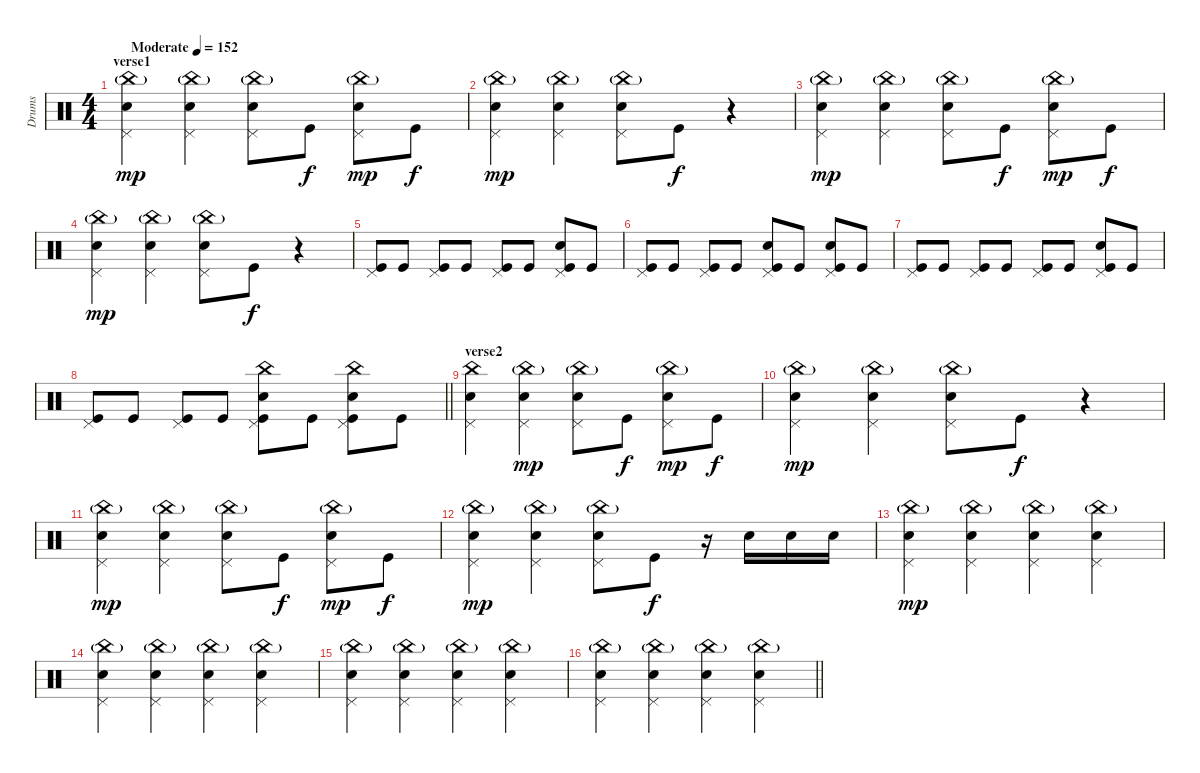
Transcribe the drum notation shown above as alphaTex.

\track ("Drums" "Drums") {instrument percussion}
\staff {score}
\articulation defaults
\ts (4 4)
\section ("" "verse1")
\tempo (152 "Moderate")
\clef neutral
\ks c
("China (hit)"{g} "Electric Snare (hit)" "Pedal Hi-Hat (hit)").4{dy mp} ("China (hit)"{g} "Electric Snare (hit)" "Pedal Hi-Hat (hit)").4 ("China (hit)"{g} "Electric Snare (hit)" "Pedal Hi-Hat (hit)").8 "Kick (hit)".8{dy f} ("China (hit)"{g} "Electric Snare (hit)" "Pedal Hi-Hat (hit)").8{dy mp} "Kick (hit)".8{dy f} |
("China (hit)"{g} "Electric Snare (hit)" "Pedal Hi-Hat (hit)").4{dy mp} ("China (hit)"{g} "Electric Snare (hit)" "Pedal Hi-Hat (hit)").4 ("China (hit)"{g} "Electric Snare (hit)" "Pedal Hi-Hat (hit)").8 "Kick (hit)".8{dy f} r.4 |
("China (hit)"{g} "Electric Snare (hit)" "Pedal Hi-Hat (hit)").4{dy mp} ("China (hit)"{g} "Electric Snare (hit)" "Pedal Hi-Hat (hit)").4 ("China (hit)"{g} "Electric Snare (hit)" "Pedal Hi-Hat (hit)").8 "Kick (hit)".8{dy f} ("China (hit)"{g} "Electric Snare (hit)" "Pedal Hi-Hat (hit)").8{dy mp} "Kick (hit)".8{dy f} |
("China (hit)"{g} "Electric Snare (hit)" "Pedal Hi-Hat (hit)").4{dy mp} ("China (hit)"{g} "Electric Snare (hit)" "Pedal Hi-Hat (hit)").4 ("China (hit)"{g} "Electric Snare (hit)" "Pedal Hi-Hat (hit)").8 "Kick (hit)".8{dy f} r.4 |
("Kick (hit)" "Pedal Hi-Hat (hit)").8 "Kick (hit)".8 ("Kick (hit)" "Pedal Hi-Hat (hit)").8 "Kick (hit)".8 ("Kick (hit)" "Pedal Hi-Hat (hit)").8 "Kick (hit)".8 ("Kick (hit)" "Pedal Hi-Hat (hit)" "Electric Snare (hit)").8 "Kick (hit)".8 |
("Kick (hit)" "Pedal Hi-Hat (hit)").8 "Kick (hit)".8 ("Kick (hit)" "Pedal Hi-Hat (hit)").8 "Kick (hit)".8 ("Kick (hit)" "Pedal Hi-Hat (hit)" "Electric Snare (hit)").8 "Kick (hit)".8 ("Kick (hit)" "Pedal Hi-Hat (hit)" "Electric Snare (hit)").8 "Kick (hit)".8 |
("Kick (hit)" "Pedal Hi-Hat (hit)").8 "Kick (hit)".8 ("Kick (hit)" "Pedal Hi-Hat (hit)").8 "Kick (hit)".8 ("Kick (hit)" "Pedal Hi-Hat (hit)").8 "Kick (hit)".8 ("Kick (hit)" "Pedal Hi-Hat (hit)" "Electric Snare (hit)").8 "Kick (hit)".8 |
\barLineRight lightlight
("Kick (hit)" "Pedal Hi-Hat (hit)").8 "Kick (hit)".8 ("Kick (hit)" "Pedal Hi-Hat (hit)").8 "Kick (hit)".8 ("Kick (hit)" "Pedal Hi-Hat (hit)" "Electric Snare (hit)" "China (hit)").8 "Kick (hit)".8 ("Kick (hit)" "Pedal Hi-Hat (hit)" "Electric Snare (hit)" "China (hit)").8 "Kick (hit)".8 |
\section ("" "verse2")
("China (hit)" "Electric Snare (hit)" "Pedal Hi-Hat (hit)").4 ("China (hit)"{g} "Electric Snare (hit)" "Pedal Hi-Hat (hit)").4{dy mp} ("China (hit)"{g} "Electric Snare (hit)" "Pedal Hi-Hat (hit)").8 "Kick (hit)".8{dy f} ("China (hit)"{g} "Electric Snare (hit)" "Pedal Hi-Hat (hit)").8{dy mp} "Kick (hit)".8{dy f} |
("China (hit)"{g} "Electric Snare (hit)" "Pedal Hi-Hat (hit)").4{dy mp} ("China (hit)"{g} "Electric Snare (hit)" "Pedal Hi-Hat (hit)").4 ("China (hit)"{g} "Electric Snare (hit)" "Pedal Hi-Hat (hit)").8 "Kick (hit)".8{dy f} r.4 |
("China (hit)"{g} "Electric Snare (hit)" "Pedal Hi-Hat (hit)").4{dy mp} ("China (hit)"{g} "Electric Snare (hit)" "Pedal Hi-Hat (hit)").4 ("China (hit)"{g} "Electric Snare (hit)" "Pedal Hi-Hat (hit)").8 "Kick (hit)".8{dy f} ("China (hit)"{g} "Electric Snare (hit)" "Pedal Hi-Hat (hit)").8{dy mp} "Kick (hit)".8{dy f} |
("China (hit)"{g} "Electric Snare (hit)" "Pedal Hi-Hat (hit)").4{dy mp} ("China (hit)"{g} "Electric Snare (hit)" "Pedal Hi-Hat (hit)").4 ("China (hit)"{g} "Electric Snare (hit)" "Pedal Hi-Hat (hit)").8 "Kick (hit)".8{dy f} r.16 "Electric Snare (hit)".16 "Electric Snare (hit)".16 "Electric Snare (hit)".16 |
("China (hit)"{g} "Electric Snare (hit)" "Pedal Hi-Hat (hit)").4{dy mp} ("China (hit)"{g} "Electric Snare (hit)" "Pedal Hi-Hat (hit)").4 ("China (hit)"{g} "Electric Snare (hit)" "Pedal Hi-Hat (hit)").4 ("China (hit)"{g} "Electric Snare (hit)" "Pedal Hi-Hat (hit)").4 |
("China (hit)"{g} "Electric Snare (hit)" "Pedal Hi-Hat (hit)").4 ("China (hit)"{g} "Electric Snare (hit)" "Pedal Hi-Hat (hit)").4 ("China (hit)"{g} "Electric Snare (hit)" "Pedal Hi-Hat (hit)").4 ("China (hit)"{g} "Electric Snare (hit)" "Pedal Hi-Hat (hit)").4 |
("China (hit)"{g} "Electric Snare (hit)" "Pedal Hi-Hat (hit)").4 ("China (hit)"{g} "Electric Snare (hit)" "Pedal Hi-Hat (hit)").4 ("China (hit)"{g} "Electric Snare (hit)" "Pedal Hi-Hat (hit)").4 ("China (hit)"{g} "Electric Snare (hit)" "Pedal Hi-Hat (hit)").4 |
\barLineRight lightlight
("China (hit)"{g} "Electric Snare (hit)" "Pedal Hi-Hat (hit)").4 ("China (hit)"{g} "Electric Snare (hit)" "Pedal Hi-Hat (hit)").4 ("China (hit)"{g} "Electric Snare (hit)" "Pedal Hi-Hat (hit)").4 ("China (hit)"{g} "Electric Snare (hit)" "Pedal Hi-Hat (hit)").4
